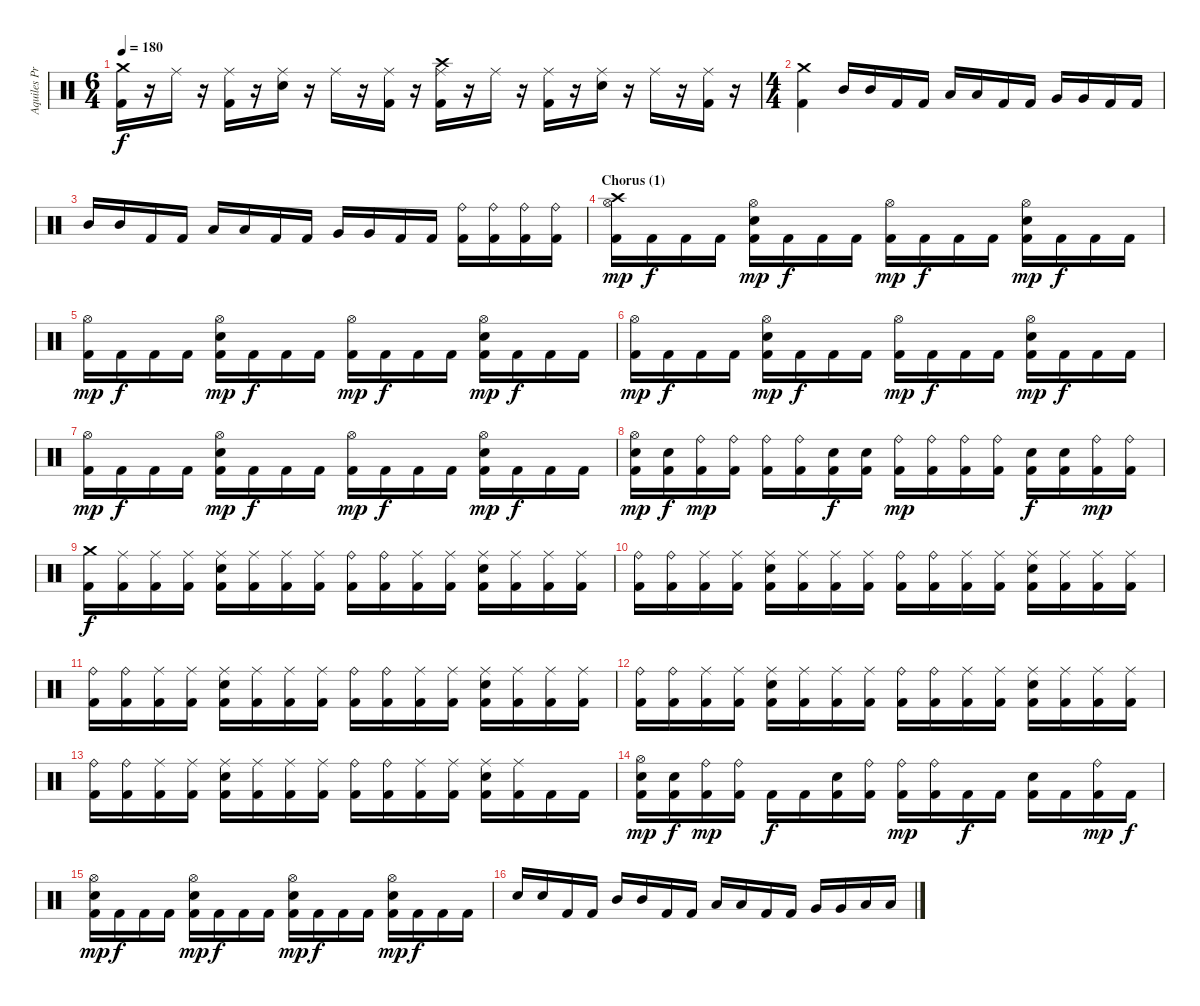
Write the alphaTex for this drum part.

\track ("Aquiles Priester" "Aquiles Pr") {instrument percussion}
\staff {score}
\articulation defaults
\ts (6 4)
\tempo 180
\clef neutral
\ks c
("Crash medium (hit)" "Kick (hit) 2").16{dy f} r.16 "Ride (middle)".16 r.16 ("Ride (middle)" "Kick (hit) 2").16 r.16 ("Ride (middle)" "Snare (hit) 2").16 r.16 "Ride (middle)".16 r.16 ("Ride (middle)" "Kick (hit) 2").16 r.16 ("Crash high (hit)" "Ride (middle)" "Kick (hit) 2").16 r.16 "Ride (middle)".16 r.16 ("Ride (middle)" "Kick (hit) 2").16 r.16 ("Ride (middle)" "Snare (hit) 2").16 r.16 "Ride (middle)".16 r.16 ("Ride (middle)" "Kick (hit) 2").16 r.16 |
\ts (4 4)
("Crash medium (hit)" "Kick (hit) 2").4 "Mid Tom (hit)".16 "Mid Tom (hit)".16 "Kick (hit) 2".16 "Kick (hit) 2".16 "Low Tom (hit)".16 "Low Tom (hit)".16 "Kick (hit) 2".16 "Kick (hit) 2".16 "Very Low Tom (hit)".16 "Very Low Tom (hit)".16 "Kick (hit) 2".16 "Kick (hit) 2".16 |
"Mid Tom (hit)".16 "Mid Tom (hit)".16 "Kick (hit) 2".16 "Kick (hit) 2".16 "Low Tom (hit)".16 "Low Tom (hit)".16 "Kick (hit) 2".16 "Kick (hit) 2".16 "Very Low Tom (hit)".16 "Very Low Tom (hit)".16 "Kick (hit) 2".16 "Kick (hit) 2".16 ("Ride (bell)" "Kick (hit) 2").16 ("Ride (bell)" "Kick (hit) 2").16 ("Ride (bell)" "Kick (hit) 2").16 ("Ride (bell)" "Kick (hit) 2").16 |
\section ("" "Chorus (1)")
("Crash high (hit)" "Hi-Hat (open)" "Kick (hit) 2").16{dy mp} "Kick (hit) 2".16{dy f} "Kick (hit) 2".16 "Kick (hit) 2".16 ("Hi-Hat (open)" "Snare (hit) 2" "Kick (hit) 2").16{dy mp} "Kick (hit) 2".16{dy f} "Kick (hit) 2".16 "Kick (hit) 2".16 ("Hi-Hat (open)" "Kick (hit) 2").16{dy mp} "Kick (hit) 2".16{dy f} "Kick (hit) 2".16 "Kick (hit) 2".16 ("Hi-Hat (open)" "Snare (hit) 2" "Kick (hit) 2").16{dy mp} "Kick (hit) 2".16{dy f} "Kick (hit) 2".16 "Kick (hit) 2".16 |
("Hi-Hat (open)" "Kick (hit) 2").16{dy mp} "Kick (hit) 2".16{dy f} "Kick (hit) 2".16 "Kick (hit) 2".16 ("Hi-Hat (open)" "Snare (hit) 2" "Kick (hit) 2").16{dy mp} "Kick (hit) 2".16{dy f} "Kick (hit) 2".16 "Kick (hit) 2".16 ("Hi-Hat (open)" "Kick (hit) 2").16{dy mp} "Kick (hit) 2".16{dy f} "Kick (hit) 2".16 "Kick (hit) 2".16 ("Hi-Hat (open)" "Snare (hit) 2" "Kick (hit) 2").16{dy mp} "Kick (hit) 2".16{dy f} "Kick (hit) 2".16 "Kick (hit) 2".16 |
("Hi-Hat (open)" "Kick (hit) 2").16{dy mp} "Kick (hit) 2".16{dy f} "Kick (hit) 2".16 "Kick (hit) 2".16 ("Hi-Hat (open)" "Snare (hit) 2" "Kick (hit) 2").16{dy mp} "Kick (hit) 2".16{dy f} "Kick (hit) 2".16 "Kick (hit) 2".16 ("Hi-Hat (open)" "Kick (hit) 2").16{dy mp} "Kick (hit) 2".16{dy f} "Kick (hit) 2".16 "Kick (hit) 2".16 ("Hi-Hat (open)" "Snare (hit) 2" "Kick (hit) 2").16{dy mp} "Kick (hit) 2".16{dy f} "Kick (hit) 2".16 "Kick (hit) 2".16 |
("Hi-Hat (open)" "Kick (hit) 2").16{dy mp} "Kick (hit) 2".16{dy f} "Kick (hit) 2".16 "Kick (hit) 2".16 ("Hi-Hat (open)" "Snare (hit) 2" "Kick (hit) 2").16{dy mp} "Kick (hit) 2".16{dy f} "Kick (hit) 2".16 "Kick (hit) 2".16 ("Hi-Hat (open)" "Kick (hit) 2").16{dy mp} "Kick (hit) 2".16{dy f} "Kick (hit) 2".16 "Kick (hit) 2".16 ("Hi-Hat (open)" "Snare (hit) 2" "Kick (hit) 2").16{dy mp} "Kick (hit) 2".16{dy f} "Kick (hit) 2".16 "Kick (hit) 2".16 |
("Hi-Hat (open)" "Snare (hit) 2" "Kick (hit) 2").16{dy mp} ("Snare (hit) 2" "Kick (hit) 2").16{dy f} ("Ride (bell)" "Kick (hit) 2").16{dy mp} ("Ride (bell)" "Kick (hit) 2").16 ("Ride (bell)" "Kick (hit) 2").16 ("Ride (bell)" "Kick (hit) 2").16 ("Snare (hit) 2" "Kick (hit) 2").16{dy f} ("Snare (hit) 2" "Kick (hit) 2").16 ("Ride (bell)" "Kick (hit) 2").16{dy mp} ("Ride (bell)" "Kick (hit) 2").16 ("Ride (bell)" "Kick (hit) 2").16 ("Ride (bell)" "Kick (hit) 2").16 ("Snare (hit) 2" "Kick (hit) 2").16{dy f} ("Snare (hit) 2" "Kick (hit) 2").16 ("Ride (bell)" "Kick (hit) 2").16{dy mp} ("Ride (bell)" "Kick (hit) 2").16 |
("Crash medium (hit)" "Kick (hit) 2").16{dy f} ("Ride (middle)" "Kick (hit) 2").16 ("Ride (middle)" "Kick (hit) 2").16 ("Ride (middle)" "Kick (hit) 2").16 ("Ride (middle)" "Snare (hit) 2" "Kick (hit) 2").16 ("Ride (middle)" "Kick (hit) 2").16 ("Ride (middle)" "Kick (hit) 2").16 ("Ride (middle)" "Kick (hit) 2").16 ("Ride (bell)" "Kick (hit) 2").16 ("Ride (bell)" "Kick (hit) 2").16 ("Ride (middle)" "Kick (hit) 2").16 ("Ride (middle)" "Kick (hit) 2").16 ("Ride (middle)" "Snare (hit) 2" "Kick (hit) 2").16 ("Ride (middle)" "Kick (hit) 2").16 ("Ride (middle)" "Kick (hit) 2").16 ("Ride (middle)" "Kick (hit) 2").16 |
("Ride (bell)" "Kick (hit) 2").16 ("Ride (bell)" "Kick (hit) 2").16 ("Ride (middle)" "Kick (hit) 2").16 ("Ride (middle)" "Kick (hit) 2").16 ("Ride (middle)" "Snare (hit) 2" "Kick (hit) 2").16 ("Ride (middle)" "Kick (hit) 2").16 ("Ride (middle)" "Kick (hit) 2").16 ("Ride (middle)" "Kick (hit) 2").16 ("Ride (bell)" "Kick (hit) 2").16 ("Ride (bell)" "Kick (hit) 2").16 ("Ride (middle)" "Kick (hit) 2").16 ("Ride (middle)" "Kick (hit) 2").16 ("Ride (middle)" "Snare (hit) 2" "Kick (hit) 2").16 ("Ride (middle)" "Kick (hit) 2").16 ("Ride (middle)" "Kick (hit) 2").16 ("Ride (middle)" "Kick (hit) 2").16 |
("Ride (bell)" "Kick (hit) 2").16 ("Ride (bell)" "Kick (hit) 2").16 ("Ride (middle)" "Kick (hit) 2").16 ("Ride (middle)" "Kick (hit) 2").16 ("Ride (middle)" "Snare (hit) 2" "Kick (hit) 2").16 ("Ride (middle)" "Kick (hit) 2").16 ("Ride (middle)" "Kick (hit) 2").16 ("Ride (middle)" "Kick (hit) 2").16 ("Ride (bell)" "Kick (hit) 2").16 ("Ride (bell)" "Kick (hit) 2").16 ("Ride (middle)" "Kick (hit) 2").16 ("Ride (middle)" "Kick (hit) 2").16 ("Ride (middle)" "Snare (hit) 2" "Kick (hit) 2").16 ("Ride (middle)" "Kick (hit) 2").16 ("Ride (middle)" "Kick (hit) 2").16 ("Ride (middle)" "Kick (hit) 2").16 |
("Ride (bell)" "Kick (hit) 2").16 ("Ride (bell)" "Kick (hit) 2").16 ("Ride (middle)" "Kick (hit) 2").16 ("Ride (middle)" "Kick (hit) 2").16 ("Ride (middle)" "Snare (hit) 2" "Kick (hit) 2").16 ("Ride (middle)" "Kick (hit) 2").16 ("Ride (middle)" "Kick (hit) 2").16 ("Ride (middle)" "Kick (hit) 2").16 ("Ride (bell)" "Kick (hit) 2").16 ("Ride (bell)" "Kick (hit) 2").16 ("Ride (middle)" "Kick (hit) 2").16 ("Ride (middle)" "Kick (hit) 2").16 ("Ride (middle)" "Snare (hit) 2" "Kick (hit) 2").16 ("Ride (middle)" "Kick (hit) 2").16 ("Ride (middle)" "Kick (hit) 2").16 ("Ride (middle)" "Kick (hit) 2").16 |
("Ride (bell)" "Kick (hit) 2").16 ("Ride (bell)" "Kick (hit) 2").16 ("Ride (middle)" "Kick (hit) 2").16 ("Ride (middle)" "Kick (hit) 2").16 ("Ride (middle)" "Snare (hit) 2" "Kick (hit) 2").16 ("Ride (middle)" "Kick (hit) 2").16 ("Ride (middle)" "Kick (hit) 2").16 ("Ride (middle)" "Kick (hit) 2").16 ("Ride (bell)" "Kick (hit) 2").16 ("Ride (bell)" "Kick (hit) 2").16 ("Ride (middle)" "Kick (hit) 2").16 ("Ride (middle)" "Kick (hit) 2").16 ("Ride (middle)" "Snare (hit) 2" "Kick (hit) 2").16 ("Ride (middle)" "Kick (hit) 2").16 "Kick (hit) 2".16 "Kick (hit) 2".16 |
("Hi-Hat (open)" "Snare (hit) 2" "Kick (hit) 2").16{dy mp} ("Snare (hit) 2" "Kick (hit) 2").16{dy f} ("Ride (bell)" "Kick (hit) 2").16{dy mp} ("Ride (bell)" "Kick (hit) 2").16 "Kick (hit) 2".16{dy f} "Kick (hit) 2".16 ("Snare (hit) 2" "Kick (hit) 2").16 ("Ride (bell)" "Kick (hit) 2").16 ("Ride (bell)" "Kick (hit) 2").16{dy mp} ("Ride (bell)" "Kick (hit) 2").16 "Kick (hit) 2".16{dy f} "Kick (hit) 2".16 ("Snare (hit) 2" "Kick (hit) 2").16 "Kick (hit) 2".16 ("Ride (bell)" "Kick (hit) 2").16{dy mp} "Kick (hit) 2".16{dy f} |
("Hi-Hat (open)" "Snare (hit) 2" "Kick (hit) 2").16{dy mp} "Kick (hit) 2".16{dy f} "Kick (hit) 2".16 "Kick (hit) 2".16 ("Hi-Hat (open)" "Snare (hit) 2" "Kick (hit) 2").16{dy mp} "Kick (hit) 2".16{dy f} "Kick (hit) 2".16 "Kick (hit) 2".16 ("Hi-Hat (open)" "Snare (hit) 2" "Kick (hit) 2").16{dy mp} "Kick (hit) 2".16{dy f} "Kick (hit) 2".16 "Kick (hit) 2".16 ("Hi-Hat (open)" "Snare (hit) 2" "Kick (hit) 2").16{dy mp} "Kick (hit) 2".16{dy f} "Kick (hit) 2".16 "Kick (hit) 2".16 |
"Snare (hit) 2".16 "Snare (hit) 2".16 "Kick (hit) 2".16 "Kick (hit) 2".16 "Mid Tom (hit)".16 "Mid Tom (hit)".16 "Kick (hit) 2".16 "Kick (hit) 2".16 "Low Tom (hit)".16 "Low Tom (hit)".16 "Kick (hit) 2".16 "Kick (hit) 2".16 "Very Low Tom (hit)".16 "Very Low Tom (hit)".16 "Low Floor Tom (hit)".16 "Low Floor Tom (hit)".16
